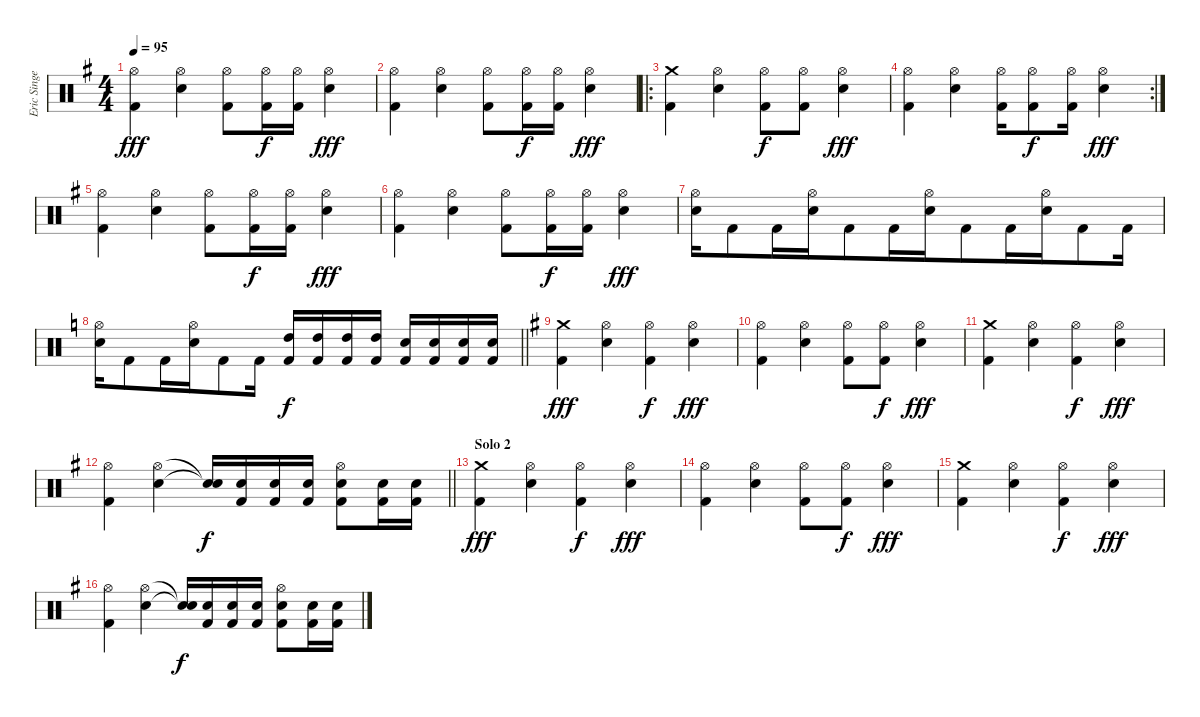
\track ("Eric Singer" "Eric Singe") {instrument percussion}
\staff {score}
\articulation defaults
\ts (4 4)
\tempo 95
\clef neutral
\ks eminor
("Hi-Hat (open)" "Kick (hit) 2").4{dy fff} ("Hi-Hat (open)" "Electric Snare (hit)").4 ("Hi-Hat (open)" "Kick (hit) 2").8 ("Hi-Hat (open)" "Kick (hit) 2").16{dy f} ("Hi-Hat (open)" "Kick (hit) 2").16 ("Hi-Hat (open)" "Electric Snare (hit)").4{dy fff} |
("Hi-Hat (open)" "Kick (hit) 2").4 ("Hi-Hat (open)" "Electric Snare (hit)").4 ("Hi-Hat (open)" "Kick (hit) 2").8 ("Hi-Hat (open)" "Kick (hit) 2").16{dy f} ("Hi-Hat (open)" "Kick (hit) 2").16 ("Hi-Hat (open)" "Electric Snare (hit)").4{dy fff} |
\ro
("Crash medium (hit)" "Kick (hit) 2").4 ("Hi-Hat (open)" "Electric Snare (hit)").4 ("Hi-Hat (open)" "Kick (hit) 2").8{dy f} ("Hi-Hat (open)" "Kick (hit) 2").8 ("Hi-Hat (open)" "Electric Snare (hit)").4{dy fff} |
\rc 2
("Hi-Hat (open)" "Kick (hit) 2").4 ("Hi-Hat (open)" "Electric Snare (hit)").4 ("Hi-Hat (open)" "Kick (hit) 2").16 ("Hi-Hat (open)" "Kick (hit) 2").8{dy f} ("Hi-Hat (open)" "Kick (hit) 2").16 ("Hi-Hat (open)" "Electric Snare (hit)").4{dy fff} |
("Hi-Hat (open)" "Kick (hit) 2").4 ("Hi-Hat (open)" "Electric Snare (hit)").4 ("Hi-Hat (open)" "Kick (hit) 2").8 ("Hi-Hat (open)" "Kick (hit) 2").16{dy f} ("Hi-Hat (open)" "Kick (hit) 2").16 ("Hi-Hat (open)" "Electric Snare (hit)").4{dy fff} |
("Hi-Hat (open)" "Kick (hit) 2").4 ("Hi-Hat (open)" "Electric Snare (hit)").4 ("Hi-Hat (open)" "Kick (hit) 2").8 ("Hi-Hat (open)" "Kick (hit) 2").16{dy f} ("Hi-Hat (open)" "Kick (hit) 2").16 ("Hi-Hat (open)" "Electric Snare (hit)").4{dy fff} |
("Hi-Hat (open)" "Electric Snare (hit)").16{beam merge} "Kick (hit) 2".8{beam merge} "Kick (hit) 2".16{beam merge} ("Hi-Hat (open)" "Electric Snare (hit)").16{beam merge} "Kick (hit) 2".8{beam merge} "Kick (hit) 2".16{beam merge} ("Hi-Hat (open)" "Electric Snare (hit)").16{beam merge} "Kick (hit) 2".8{beam merge} "Kick (hit) 2".16{beam merge} ("Hi-Hat (open)" "Electric Snare (hit)").16{beam merge} "Kick (hit) 2".8{beam merge} "Kick (hit) 2".16 |
\barLineRight lightlight
\ks c
("Hi-Hat (open)" "Electric Snare (hit)").16{beam merge} "Kick (hit) 2".8{beam merge} "Kick (hit) 2".16{beam merge} ("Hi-Hat (open)" "Electric Snare (hit)").16{beam merge} "Kick (hit) 2".8{beam merge} "Kick (hit) 2".16 ("High Tom (hit)" "Kick (hit) 2").16{dy f} ("High Tom (hit)" "Kick (hit) 2").16 ("High Tom (hit)" "Kick (hit) 2").16 ("High Tom (hit)" "Kick (hit) 2").16 ("Electric Snare (hit)" "Kick (hit) 2").16 ("Electric Snare (hit)" "Kick (hit) 2").16 ("Electric Snare (hit)" "Kick (hit) 2").16 ("Electric Snare (hit)" "Kick (hit) 2").16 |
\ks eminor
("Crash medium (hit)" "Kick (hit) 2").4{dy fff} ("Hi-Hat (open)" "Electric Snare (hit)").4 ("Hi-Hat (open)" "Kick (hit) 2").4{dy f} ("Hi-Hat (open)" "Electric Snare (hit)").4{dy fff} |
("Hi-Hat (open)" "Kick (hit) 2").4 ("Hi-Hat (open)" "Electric Snare (hit)").4 ("Hi-Hat (open)" "Kick (hit) 2").8 ("Hi-Hat (open)" "Kick (hit) 2").8{dy f} ("Hi-Hat (open)" "Electric Snare (hit)").4{dy fff} |
("Crash medium (hit)" "Kick (hit) 2").4 ("Hi-Hat (open)" "Electric Snare (hit)").4 ("Hi-Hat (open)" "Kick (hit) 2").4{dy f} ("Hi-Hat (open)" "Electric Snare (hit)").4{dy fff} |
\barLineRight lightlight
("Hi-Hat (open)" "Kick (hit) 2").4 ("Hi-Hat (open)" "Electric Snare (hit)").4 ("Snare (hit)"{t} "Snare (hit)"{t}).16{dy f} ("Electric Snare (hit)" "Kick (hit) 2").16 ("Electric Snare (hit)" "Kick (hit) 2").16 ("Electric Snare (hit)" "Kick (hit) 2").16 ("Hi-Hat (open)" "Snare (hit) 2" "Kick (hit) 2").8 ("Snare (hit) 2" "Kick (hit) 2").16 ("Snare (hit) 2" "Kick (hit) 2").16 |
\section ("" "Solo 2")
("Crash medium (hit)" "Kick (hit) 2").4{dy fff} ("Hi-Hat (open)" "Electric Snare (hit)").4 ("Hi-Hat (open)" "Kick (hit) 2").4{dy f} ("Hi-Hat (open)" "Electric Snare (hit)").4{dy fff} |
("Hi-Hat (open)" "Kick (hit) 2").4 ("Hi-Hat (open)" "Electric Snare (hit)").4 ("Hi-Hat (open)" "Kick (hit) 2").8 ("Hi-Hat (open)" "Kick (hit) 2").8{dy f} ("Hi-Hat (open)" "Electric Snare (hit)").4{dy fff} |
("Crash medium (hit)" "Kick (hit) 2").4 ("Hi-Hat (open)" "Electric Snare (hit)").4 ("Hi-Hat (open)" "Kick (hit) 2").4{dy f} ("Hi-Hat (open)" "Electric Snare (hit)").4{dy fff} |
("Hi-Hat (open)" "Kick (hit) 2").4 ("Hi-Hat (open)" "Electric Snare (hit)").4 ("Snare (hit)"{t} "Snare (hit)"{t}).16{dy f} ("Electric Snare (hit)" "Kick (hit) 2").16 ("Electric Snare (hit)" "Kick (hit) 2").16 ("Electric Snare (hit)" "Kick (hit) 2").16 ("Hi-Hat (open)" "Snare (hit) 2" "Kick (hit) 2").8 ("Snare (hit) 2" "Kick (hit) 2").16 ("Snare (hit) 2" "Kick (hit) 2").16
